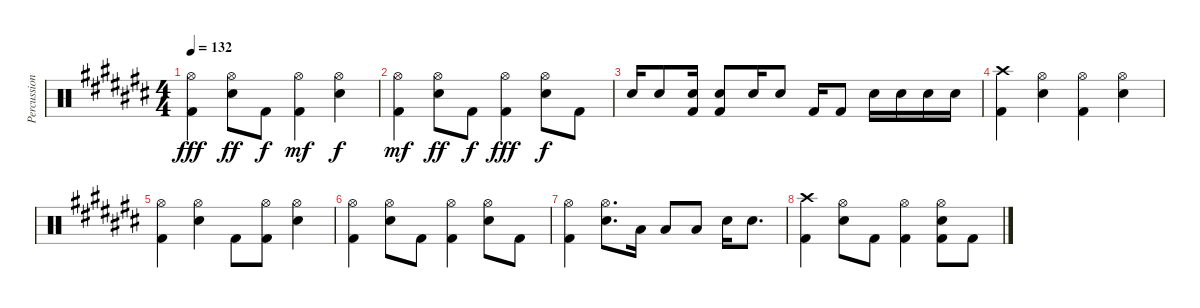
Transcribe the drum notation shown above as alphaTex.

\track ("Percussion" "Percussion") {instrument percussion}
\staff {score}
\articulation defaults
\ts (4 4)
\tempo 132
\clef neutral
\ks c#
("Hi-Hat (open)" "Kick (hit) 2").4{dy fff} ("Hi-Hat (open)" "Snare (hit) 2").8{dy ff} "Kick (hit) 2".8{dy f} ("Hi-Hat (open)" "Kick (hit) 2").4{dy mf} ("Hi-Hat (open)" "Snare (hit) 2").4{dy f} |
("Hi-Hat (open)" "Kick (hit) 2").4{dy mf} ("Hi-Hat (open)" "Snare (hit) 2").8{dy ff} "Kick (hit) 2".8{dy f} ("Hi-Hat (open)" "Kick (hit) 2").4{dy fff} ("Hi-Hat (open)" "Snare (hit) 2").8{dy f} "Kick (hit) 2".8 |
"Snare (hit) 2".16 "Snare (hit) 2".8 ("Snare (hit) 2" "Kick (hit) 2").16 ("Snare (hit) 2" "Kick (hit) 2").8 "Snare (hit) 2".16 "Snare (hit) 2".8 "Kick (hit) 2".16 "Kick (hit) 2".8 "Snare (hit) 2".16 "Snare (hit) 2".16 "Snare (hit) 2".16 "Snare (hit) 2".16 |
("Crash high (hit)" "Kick (hit) 2").4 ("Hi-Hat (open)" "Snare (hit) 2").4 ("Hi-Hat (open)" "Kick (hit) 2").4 ("Hi-Hat (open)" "Snare (hit) 2").4 |
("Hi-Hat (open)" "Kick (hit) 2").4 ("Hi-Hat (open)" "Snare (hit) 2").4 "Kick (hit) 2".8 ("Hi-Hat (open)" "Kick (hit) 2").8 ("Hi-Hat (open)" "Snare (hit) 2").4 |
("Hi-Hat (open)" "Kick (hit) 2").4 ("Hi-Hat (open)" "Snare (hit) 2").8 "Kick (hit) 2".8 ("Hi-Hat (open)" "Kick (hit) 2").4 ("Hi-Hat (open)" "Snare (hit) 2").8 "Kick (hit) 2".8 |
("Hi-Hat (open)" "Kick (hit) 2").4 ("Hi-Hat (open)" "Snare (hit) 2").8{d} "Low Tom (hit)".16 "Low Tom (hit)".8 "Low Floor Tom (hit)".8 "Snare (hit) 2".16 "Snare (hit) 2".8{d} |
("Crash high (hit)" "Kick (hit) 2").4 ("Hi-Hat (open)" "Snare (hit) 2").8 "Kick (hit) 2".8 ("Hi-Hat (open)" "Kick (hit) 2").4 ("Hi-Hat (open)" "Snare (hit) 2" "Kick (hit) 2").8 "Kick (hit) 2".8
